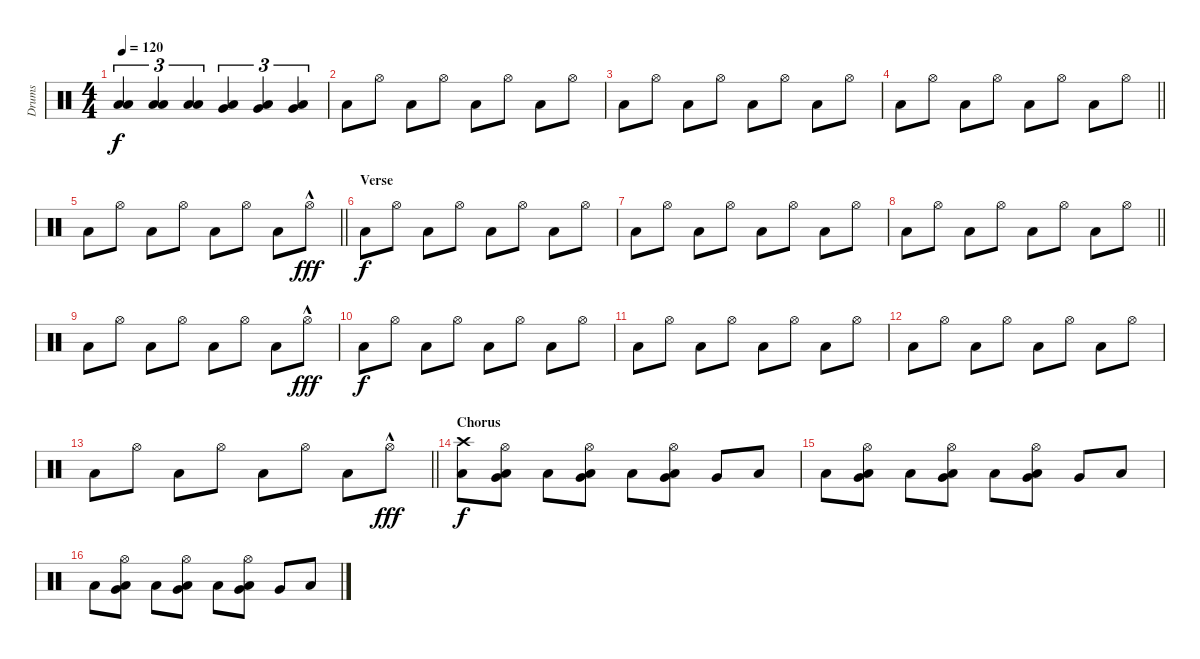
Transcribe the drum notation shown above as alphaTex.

\track ("Drums" "Drums") {instrument percussion}
\staff {score}
\articulation defaults
\ts (4 4)
\tempo 120
\clef neutral
\ks c
("Low Tom (hit)" "Low Floor Tom (hit)").4{tu (3 2) dy f} ("Low Tom (hit)" "Low Floor Tom (hit)").4{tu (3 2)} ("Low Tom (hit)" "Low Floor Tom (hit)").4{tu (3 2)} ("Very Low Tom (hit)" "Low Floor Tom (hit)").4{tu (3 2)} ("Very Low Tom (hit)" "Low Floor Tom (hit)").4{tu (3 2)} ("Very Low Tom (hit)" "Low Floor Tom (hit)").4{tu (3 2)} |
"Low Floor Tom (hit)".8 "Hi-Hat (open)".8 "Low Floor Tom (hit)".8 "Hi-Hat (open)".8 "Low Floor Tom (hit)".8 "Hi-Hat (open)".8 "Low Floor Tom (hit)".8 "Hi-Hat (open)".8 |
"Low Floor Tom (hit)".8 "Hi-Hat (open)".8 "Low Floor Tom (hit)".8 "Hi-Hat (open)".8 "Low Floor Tom (hit)".8 "Hi-Hat (open)".8 "Low Floor Tom (hit)".8 "Hi-Hat (open)".8 |
\barLineRight lightlight "Low Floor Tom (hit)".8 "Hi-Hat (open)".8 "Low Floor Tom (hit)".8 "Hi-Hat (open)".8 "Low Floor Tom (hit)".8 "Hi-Hat (open)".8 "Low Floor Tom (hit)".8 "Hi-Hat (open)".8
|
\barLineRight lightlight "Low Floor Tom (hit)".8 "Hi-Hat (open)".8 "Low Floor Tom (hit)".8 "Hi-Hat (open)".8 "Low Floor Tom (hit)".8 "Hi-Hat (open)".8 "Low Floor Tom (hit)".8 "Hi-Hat (open)"{hac}.8{dy fff}
|
\section ("" "Verse")
"Low Floor Tom (hit)".8{dy f} "Hi-Hat (open)".8 "Low Floor Tom (hit)".8 "Hi-Hat (open)".8 "Low Floor Tom (hit)".8 "Hi-Hat (open)".8 "Low Floor Tom (hit)".8 "Hi-Hat (open)".8 |
"Low Floor Tom (hit)".8 "Hi-Hat (open)".8 "Low Floor Tom (hit)".8 "Hi-Hat (open)".8 "Low Floor Tom (hit)".8 "Hi-Hat (open)".8 "Low Floor Tom (hit)".8 "Hi-Hat (open)".8 |
\barLineRight lightlight "Low Floor Tom (hit)".8 "Hi-Hat (open)".8 "Low Floor Tom (hit)".8 "Hi-Hat (open)".8 "Low Floor Tom (hit)".8 "Hi-Hat (open)".8 "Low Floor Tom (hit)".8 "Hi-Hat (open)".8
|
"Low Floor Tom (hit)".8 "Hi-Hat (open)".8 "Low Floor Tom (hit)".8 "Hi-Hat (open)".8 "Low Floor Tom (hit)".8 "Hi-Hat (open)".8 "Low Floor Tom (hit)".8 "Hi-Hat (open)"{hac}.8{dy fff} |
"Low Floor Tom (hit)".8{dy f} "Hi-Hat (open)".8 "Low Floor Tom (hit)".8 "Hi-Hat (open)".8 "Low Floor Tom (hit)".8 "Hi-Hat (open)".8 "Low Floor Tom (hit)".8 "Hi-Hat (open)".8 |
"Low Floor Tom (hit)".8 "Hi-Hat (open)".8 "Low Floor Tom (hit)".8 "Hi-Hat (open)".8 "Low Floor Tom (hit)".8 "Hi-Hat (open)".8 "Low Floor Tom (hit)".8 "Hi-Hat (open)".8 |
"Low Floor Tom (hit)".8 "Hi-Hat (open)".8 "Low Floor Tom (hit)".8 "Hi-Hat (open)".8 "Low Floor Tom (hit)".8 "Hi-Hat (open)".8 "Low Floor Tom (hit)".8 "Hi-Hat (open)".8 |
\barLineRight lightlight "Low Floor Tom (hit)".8 "Hi-Hat (open)".8 "Low Floor Tom (hit)".8 "Hi-Hat (open)".8 "Low Floor Tom (hit)".8 "Hi-Hat (open)".8 "Low Floor Tom (hit)".8 "Hi-Hat (open)"{hac}.8{dy fff}
|
\section ("" "Chorus")
("Crash high (hit)" "Low Floor Tom (hit)").8{dy f} ("Hi-Hat (open)" "Low Tom (hit)" "Very Low Tom (hit)").8 "Low Floor Tom (hit)".8 ("Hi-Hat (open)" "Low Tom (hit)" "Very Low Tom (hit)").8 "Low Floor Tom (hit)".8 ("Hi-Hat (open)" "Low Tom (hit)" "Very Low Tom (hit)").8 "Very Low Tom (hit)".8 "Low Floor Tom (hit)".8 |
"Low Floor Tom (hit)".8 ("Hi-Hat (open)" "Low Tom (hit)" "Very Low Tom (hit)").8 "Low Floor Tom (hit)".8 ("Hi-Hat (open)" "Low Tom (hit)" "Very Low Tom (hit)").8 "Low Floor Tom (hit)".8 ("Hi-Hat (open)" "Low Tom (hit)" "Very Low Tom (hit)").8 "Very Low Tom (hit)".8 "Low Floor Tom (hit)".8 |
"Low Floor Tom (hit)".8 ("Hi-Hat (open)" "Low Tom (hit)" "Very Low Tom (hit)").8 "Low Floor Tom (hit)".8 ("Hi-Hat (open)" "Low Tom (hit)" "Very Low Tom (hit)").8 "Low Floor Tom (hit)".8 ("Hi-Hat (open)" "Low Tom (hit)" "Very Low Tom (hit)").8 "Very Low Tom (hit)".8 "Low Floor Tom (hit)".8
